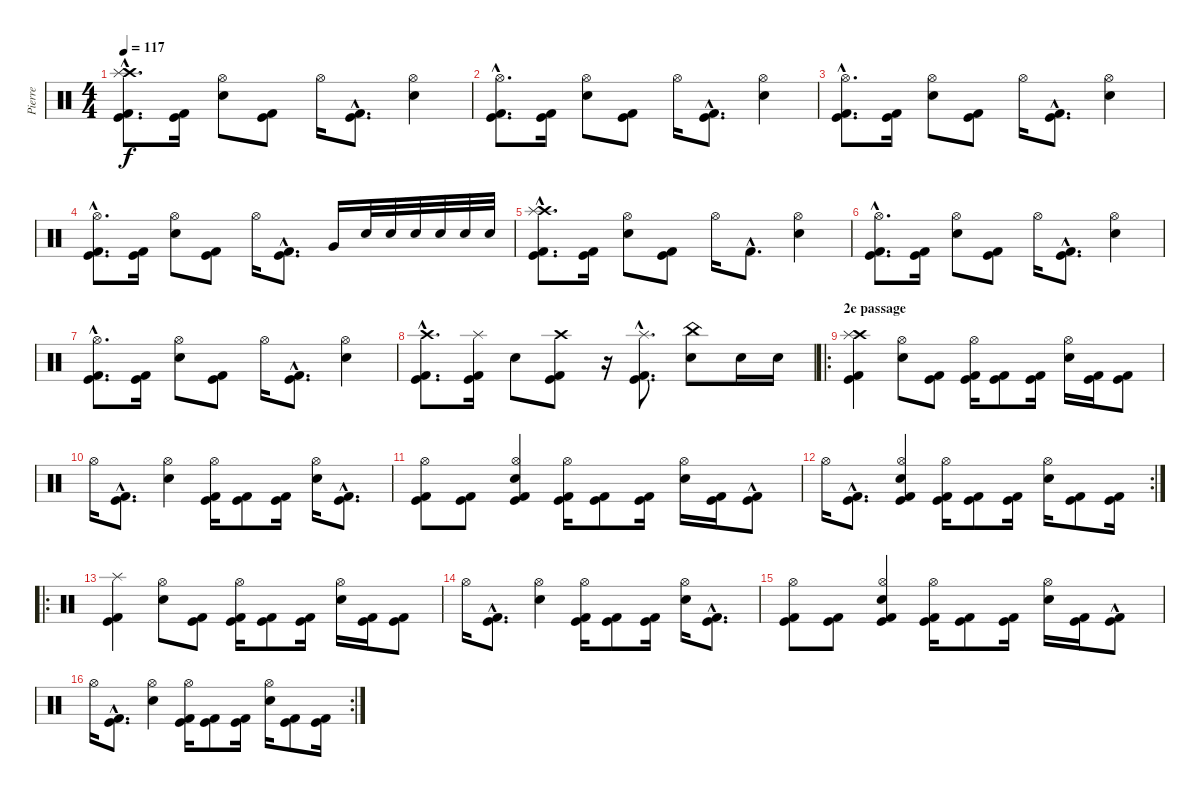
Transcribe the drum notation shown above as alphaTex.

\track ("Pierre" "Pierre") {instrument percussion}
\staff {score}
\articulation defaults
\ts (4 4)
\tempo 117
\clef neutral
\ks c
("Crash high (hit)"{hac} "Splash (hit)"{hac} "Kick (hit)"{hac} "Kick (hit) 2").8{d dy f} ("Kick (hit)" "Kick (hit) 2").16 ("Hi-Hat (open)" "Electric Snare (hit)").8 ("Kick (hit)" "Kick (hit) 2").8 "Hi-Hat (open)".16 ("Kick (hit)"{hac} "Kick (hit) 2"{hac}).8{d} ("Hi-Hat (open)" "Electric Snare (hit)").4 |
("Hi-Hat (open)"{hac} "Kick (hit)"{hac} "Kick (hit) 2").8{d} ("Kick (hit)" "Kick (hit) 2").16 ("Hi-Hat (open)" "Electric Snare (hit)").8 ("Kick (hit)" "Kick (hit) 2").8 "Hi-Hat (open)".16 ("Kick (hit)"{hac} "Kick (hit) 2"{hac}).8{d} ("Hi-Hat (open)" "Electric Snare (hit)").4 |
("Hi-Hat (open)"{hac} "Kick (hit)"{hac} "Kick (hit) 2").8{d} ("Kick (hit)" "Kick (hit) 2").16 ("Hi-Hat (open)" "Electric Snare (hit)").8 ("Kick (hit)" "Kick (hit) 2").8 "Hi-Hat (open)".16 ("Kick (hit)"{hac} "Kick (hit) 2"{hac}).8{d} ("Hi-Hat (open)" "Electric Snare (hit)").4 |
("Hi-Hat (open)"{hac} "Kick (hit)" "Kick (hit) 2").8{d} ("Kick (hit)" "Kick (hit) 2").16 ("Hi-Hat (open)" "Electric Snare (hit)").8 ("Kick (hit)" "Kick (hit) 2").8 "Hi-Hat (open)".16 ("Kick (hit)"{hac} "Kick (hit) 2"{hac}).8{d} "Very Low Tom (hit)".16 "Electric Snare (hit)".32 "Electric Snare (hit)".32 "Electric Snare (hit)".32 "Electric Snare (hit)".32 "Electric Snare (hit)".32 "Electric Snare (hit)".32 |
("Crash high (hit)"{hac} "Splash (hit)"{hac} "Kick (hit)"{hac} "Kick (hit) 2").8{d} ("Kick (hit)" "Kick (hit) 2").16 ("Hi-Hat (open)" "Electric Snare (hit)").8 ("Kick (hit)" "Kick (hit) 2").8 "Hi-Hat (open)".16 "Kick (hit) 2"{hac}.8{d} ("Hi-Hat (open)" "Electric Snare (hit)").4 |
("Hi-Hat (open)"{hac} "Kick (hit)"{hac} "Kick (hit) 2").8{d} ("Kick (hit)" "Kick (hit) 2").16 ("Hi-Hat (open)" "Electric Snare (hit)").8 ("Kick (hit)" "Kick (hit) 2").8 "Hi-Hat (open)".16 ("Kick (hit)"{hac} "Kick (hit) 2"{hac}).8{d} ("Hi-Hat (open)" "Electric Snare (hit)").4 |
("Hi-Hat (open)"{hac} "Kick (hit)"{hac} "Kick (hit) 2").8{d} ("Kick (hit)" "Kick (hit) 2").16 ("Hi-Hat (open)" "Electric Snare (hit)").8 ("Kick (hit)" "Kick (hit) 2").8 "Hi-Hat (open)".16 ("Kick (hit)"{hac} "Kick (hit) 2"{hac}).8{d} ("Hi-Hat (open)" "Electric Snare (hit)").4 |
("Crash high (hit)"{hac} "Kick (hit)"{hac} "Kick (hit) 2").8{d} ("Splash (hit)" "Kick (hit)" "Kick (hit) 2").16 "Electric Snare (hit)".8 ("Crash high (hit)" "Kick (hit)" "Kick (hit) 2").8 r.16 ("Splash (hit)"{hac} "Kick (hit)"{hac} "Kick (hit) 2"{hac}).8{d} ("China (hit)" "Electric Snare (hit)").8 "Electric Snare (hit)".16 "Electric Snare (hit)".16 |
\ro
\section ("" "2e passage")
("Crash high (hit)" "Splash (hit)" "Kick (hit)" "Kick (hit) 2").4 ("Hi-Hat (open)" "Electric Snare (hit)").8 ("Kick (hit)" "Kick (hit) 2").8 ("Hi-Hat (open)" "Kick (hit)" "Kick (hit) 2").16 ("Kick (hit)" "Kick (hit) 2").8 ("Kick (hit)" "Kick (hit) 2").16 ("Hi-Hat (open)" "Electric Snare (hit)").16 ("Kick (hit)" "Kick (hit) 2").16 ("Kick (hit)" "Kick (hit) 2").8 |
"Hi-Hat (open)".16 ("Kick (hit)"{hac} "Kick (hit) 2"{hac}).8{d} ("Hi-Hat (open)" "Electric Snare (hit)").4 ("Hi-Hat (open)" "Kick (hit)" "Kick (hit) 2").16 ("Kick (hit)" "Kick (hit) 2").8 ("Kick (hit)" "Kick (hit) 2").16 ("Hi-Hat (open)" "Electric Snare (hit)").16 ("Kick (hit)"{hac} "Kick (hit) 2"{hac}).8{d} |
("Hi-Hat (open)" "Kick (hit)" "Kick (hit) 2").8 ("Kick (hit)" "Kick (hit) 2").8 ("Hi-Hat (open)" "Kick (hit)" "Electric Snare (hit)" "Kick (hit) 2").4 ("Hi-Hat (open)" "Kick (hit)" "Kick (hit) 2").16 ("Kick (hit)" "Kick (hit) 2").8 ("Kick (hit)" "Kick (hit) 2").16 ("Hi-Hat (open)" "Electric Snare (hit)").16 ("Kick (hit)" "Kick (hit) 2").16 ("Kick (hit)" "Kick (hit) 2"{hac}).8 |
\rc 2 "Hi-Hat (open)".16
("Kick (hit)"{hac} "Kick (hit) 2"{hac}).8{d} ("Hi-Hat (open)" "Kick (hit)" "Electric Snare (hit)" "Kick (hit) 2").4 ("Hi-Hat (open)" "Kick (hit)" "Kick (hit) 2").16 ("Kick (hit)" "Kick (hit) 2").8 ("Kick (hit)" "Kick (hit) 2").16 ("Hi-Hat (open)" "Electric Snare (hit)").16 ("Kick (hit)" "Kick (hit) 2").8 ("Kick (hit)" "Kick (hit) 2").16 |
\ro
("Splash (hit)" "Kick (hit)" "Kick (hit) 2").4 ("Hi-Hat (open)" "Electric Snare (hit)").8 ("Kick (hit)" "Kick (hit) 2").8 ("Hi-Hat (open)" "Kick (hit)" "Kick (hit) 2").16 ("Kick (hit)" "Kick (hit) 2").8 ("Kick (hit)" "Kick (hit) 2").16 ("Hi-Hat (open)" "Electric Snare (hit)").16 ("Kick (hit)" "Kick (hit) 2").16 ("Kick (hit)" "Kick (hit) 2").8 |
"Hi-Hat (open)".16 ("Kick (hit)"{hac} "Kick (hit) 2"{hac}).8{d} ("Hi-Hat (open)" "Electric Snare (hit)").4 ("Hi-Hat (open)" "Kick (hit)" "Kick (hit) 2").16 ("Kick (hit)" "Kick (hit) 2").8 ("Kick (hit)" "Kick (hit) 2").16 ("Hi-Hat (open)" "Electric Snare (hit)").16 ("Kick (hit)"{hac} "Kick (hit) 2"{hac}).8{d} |
("Hi-Hat (open)" "Kick (hit)" "Kick (hit) 2").8 ("Kick (hit)" "Kick (hit) 2").8 ("Hi-Hat (open)" "Kick (hit)" "Electric Snare (hit)" "Kick (hit) 2").4 ("Hi-Hat (open)" "Kick (hit)" "Kick (hit) 2").16 ("Kick (hit)" "Kick (hit) 2").8 ("Kick (hit)" "Kick (hit) 2").16 ("Hi-Hat (open)" "Electric Snare (hit)").16 ("Kick (hit)" "Kick (hit) 2").16 ("Kick (hit)" "Kick (hit) 2"{hac}).8 |
\rc 2 "Hi-Hat (open)".16
("Kick (hit)"{hac} "Kick (hit) 2"{hac}).8{d} ("Hi-Hat (open)" "Electric Snare (hit)").4 ("Hi-Hat (open)" "Kick (hit)" "Kick (hit) 2").16 ("Kick (hit)" "Kick (hit) 2").8 ("Kick (hit)" "Kick (hit) 2").16 ("Hi-Hat (open)" "Electric Snare (hit)").16 ("Kick (hit)" "Kick (hit) 2").8 ("Kick (hit)" "Kick (hit) 2").16
